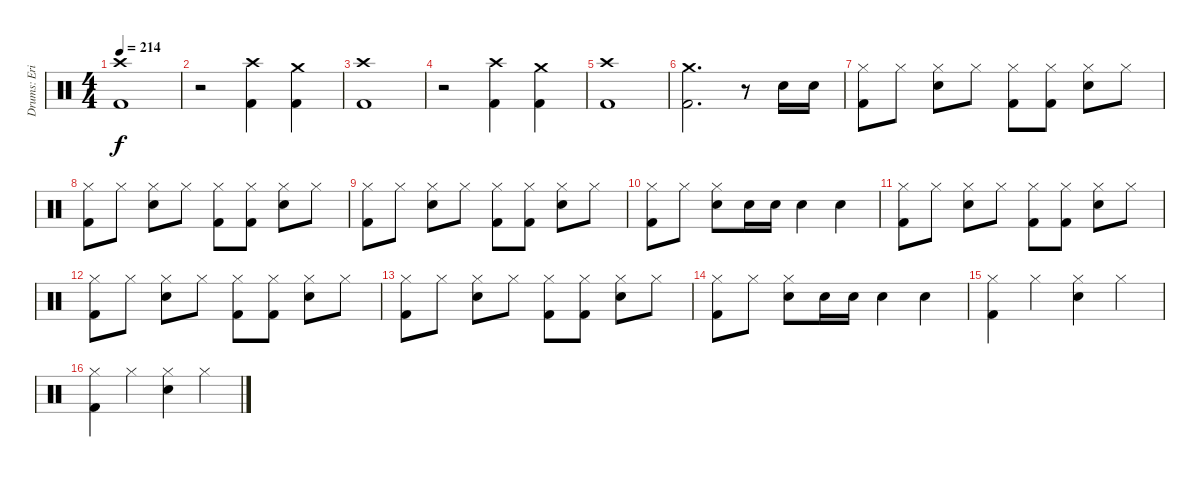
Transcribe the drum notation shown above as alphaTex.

\track ("Drums: Erik Sandin" "Drums: Eri") {instrument percussion}
\staff {score}
\articulation defaults
\ts (4 4)
\tempo 214
\clef neutral
\ks c
("Crash high (hit)" "Kick (hit) 2").1{dy f} |
r.2 ("Crash high (hit)" "Kick (hit) 2").4 ("Crash medium (hit)" "Kick (hit) 2").4 |
("Crash high (hit)" "Kick (hit) 2").1 |
r.2 ("Crash high (hit)" "Kick (hit) 2").4 ("Crash medium (hit)" "Kick (hit) 2").4 |
("Crash high (hit)" "Kick (hit) 2").1 |
("Crash medium (hit)" "Kick (hit) 2").2{d} r.8 "Electric Snare (hit)".16 "Electric Snare (hit)".16 |
("Hi-Hat (closed)" "Kick (hit) 2").8 "Hi-Hat (closed)".8 ("Hi-Hat (closed)" "Electric Snare (hit)").8 "Hi-Hat (closed)".8 ("Hi-Hat (closed)" "Kick (hit) 2").8 ("Hi-Hat (closed)" "Kick (hit) 2").8 ("Hi-Hat (closed)" "Electric Snare (hit)").8 "Hi-Hat (closed)".8 |
("Hi-Hat (closed)" "Kick (hit) 2").8 "Hi-Hat (closed)".8 ("Hi-Hat (closed)" "Electric Snare (hit)").8 "Hi-Hat (closed)".8 ("Hi-Hat (closed)" "Kick (hit) 2").8 ("Hi-Hat (closed)" "Kick (hit) 2").8 ("Hi-Hat (closed)" "Electric Snare (hit)").8 "Hi-Hat (closed)".8 |
("Hi-Hat (closed)" "Kick (hit) 2").8 "Hi-Hat (closed)".8 ("Hi-Hat (closed)" "Electric Snare (hit)").8 "Hi-Hat (closed)".8 ("Hi-Hat (closed)" "Kick (hit) 2").8 ("Hi-Hat (closed)" "Kick (hit) 2").8 ("Hi-Hat (closed)" "Electric Snare (hit)").8 "Hi-Hat (closed)".8 |
("Hi-Hat (closed)" "Kick (hit) 2").8 "Hi-Hat (closed)".8 ("Hi-Hat (closed)" "Electric Snare (hit)").8 "Electric Snare (hit)".16 "Electric Snare (hit)".16 "Electric Snare (hit)".4 "Electric Snare (hit)".4 |
("Hi-Hat (closed)" "Kick (hit) 2").8 "Hi-Hat (closed)".8 ("Hi-Hat (closed)" "Electric Snare (hit)").8 "Hi-Hat (closed)".8 ("Hi-Hat (closed)" "Kick (hit) 2").8 ("Hi-Hat (closed)" "Kick (hit) 2").8 ("Hi-Hat (closed)" "Electric Snare (hit)").8 "Hi-Hat (closed)".8 |
("Hi-Hat (closed)" "Kick (hit) 2").8 "Hi-Hat (closed)".8 ("Hi-Hat (closed)" "Electric Snare (hit)").8 "Hi-Hat (closed)".8 ("Hi-Hat (closed)" "Kick (hit) 2").8 ("Hi-Hat (closed)" "Kick (hit) 2").8 ("Hi-Hat (closed)" "Electric Snare (hit)").8 "Hi-Hat (closed)".8 |
("Hi-Hat (closed)" "Kick (hit) 2").8 "Hi-Hat (closed)".8 ("Hi-Hat (closed)" "Electric Snare (hit)").8 "Hi-Hat (closed)".8 ("Hi-Hat (closed)" "Kick (hit) 2").8 ("Hi-Hat (closed)" "Kick (hit) 2").8 ("Hi-Hat (closed)" "Electric Snare (hit)").8 "Hi-Hat (closed)".8 |
("Hi-Hat (closed)" "Kick (hit) 2").8 "Hi-Hat (closed)".8 ("Hi-Hat (closed)" "Electric Snare (hit)").8 "Electric Snare (hit)".16 "Electric Snare (hit)".16 "Electric Snare (hit)".4 "Electric Snare (hit)".4 |
("Hi-Hat (closed)" "Kick (hit) 2").4 "Hi-Hat (closed)".4 ("Hi-Hat (closed)" "Electric Snare (hit)").4 "Hi-Hat (closed)".4 |
("Hi-Hat (closed)" "Kick (hit) 2").4 "Hi-Hat (closed)".4 ("Hi-Hat (closed)" "Electric Snare (hit)").4 "Hi-Hat (closed)".4
